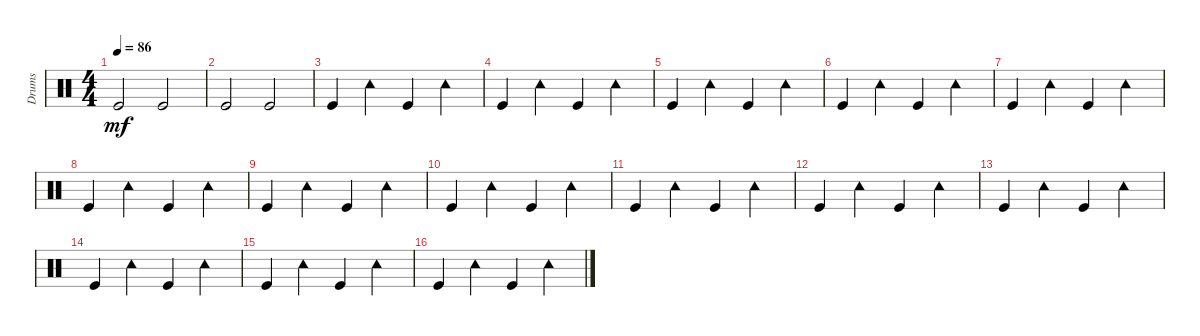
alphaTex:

\track ("Drums" "Drums") {instrument percussion}
\staff {score}
\articulation defaults
\ts (4 4)
\tempo 86
\clef neutral
\ks c "Kick (hit)".2{dy mf} "Kick (hit)".2
|
"Kick (hit)".2 "Kick (hit)".2 |
"Kick (hit)".4 "Tambourine (hit)".4 "Kick (hit)".4 "Tambourine (hit)".4 |
"Kick (hit)".4 "Tambourine (hit)".4 "Kick (hit)".4 "Tambourine (hit)".4 |
"Kick (hit)".4 "Tambourine (hit)".4 "Kick (hit)".4 "Tambourine (hit)".4 |
"Kick (hit)".4 "Tambourine (hit)".4 "Kick (hit)".4 "Tambourine (hit)".4 |
"Kick (hit)".4 "Tambourine (hit)".4 "Kick (hit)".4 "Tambourine (hit)".4 |
"Kick (hit)".4 "Tambourine (hit)".4 "Kick (hit)".4 "Tambourine (hit)".4 |
"Kick (hit)".4 "Tambourine (hit)".4 "Kick (hit)".4 "Tambourine (hit)".4 |
"Kick (hit)".4 "Tambourine (hit)".4 "Kick (hit)".4 "Tambourine (hit)".4 |
"Kick (hit)".4 "Tambourine (hit)".4 "Kick (hit)".4 "Tambourine (hit)".4 |
"Kick (hit)".4 "Tambourine (hit)".4 "Kick (hit)".4 "Tambourine (hit)".4 |
"Kick (hit)".4 "Tambourine (hit)".4 "Kick (hit)".4 "Tambourine (hit)".4 |
"Kick (hit)".4 "Tambourine (hit)".4 "Kick (hit)".4 "Tambourine (hit)".4 |
"Kick (hit)".4 "Tambourine (hit)".4 "Kick (hit)".4 "Tambourine (hit)".4 |
"Kick (hit)".4 "Tambourine (hit)".4 "Kick (hit)".4 "Tambourine (hit)".4
